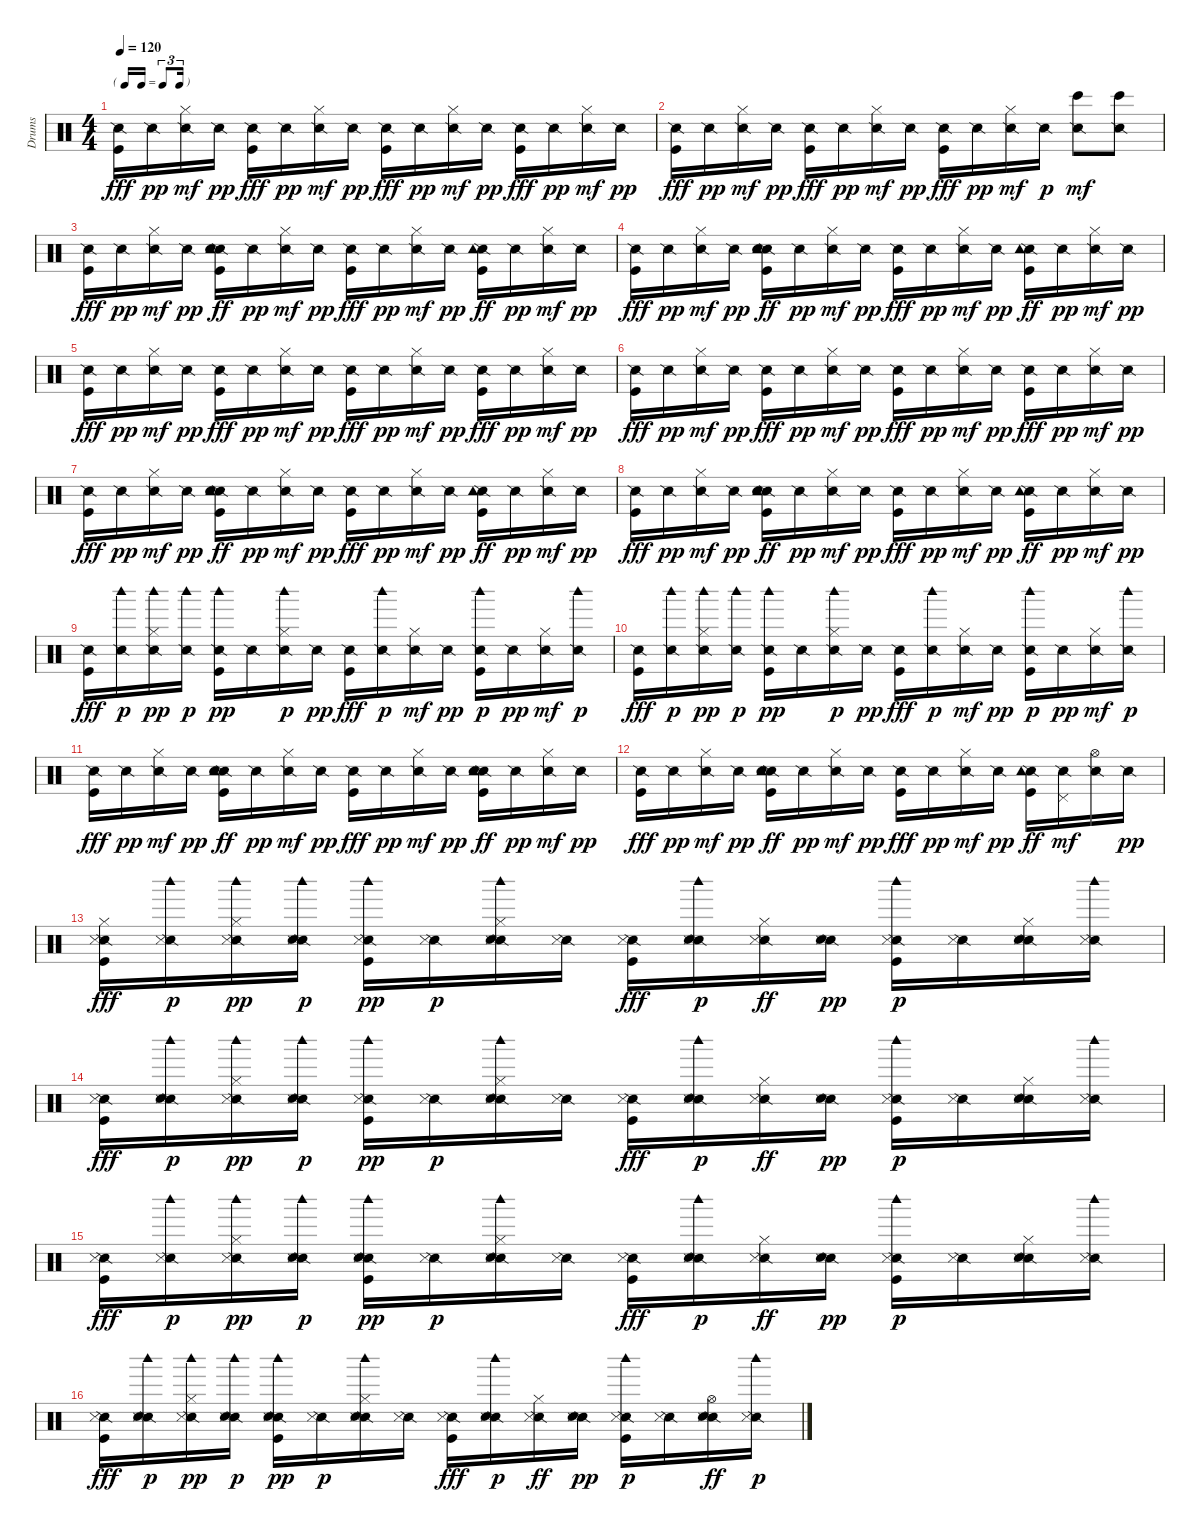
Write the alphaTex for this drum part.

\track ("Drums" "Drums") {instrument percussion}
\staff {score}
\articulation defaults
\ts (4 4)
\tf triplet16th
\tempo 120
\clef neutral
\ks c
("Snare (side stick) 2" "Kick (hit)").16{dy fff} "Snare (side stick) 2".16{dy pp} ("Snare (side stick) 2" "Hi-Hat (closed)").16{dy mf} "Snare (side stick) 2".16{dy pp} ("Snare (side stick) 2" "Kick (hit)").16{dy fff} "Snare (side stick) 2".16{dy pp} ("Snare (side stick) 2" "Hi-Hat (closed)").16{dy mf} "Snare (side stick) 2".16{dy pp} ("Snare (side stick) 2" "Kick (hit)").16{dy fff} "Snare (side stick) 2".16{dy pp} ("Snare (side stick) 2" "Hi-Hat (closed)").16{dy mf} "Snare (side stick) 2".16{dy pp} ("Snare (side stick) 2" "Kick (hit)").16{dy fff} "Snare (side stick) 2".16{dy pp} ("Snare (side stick) 2" "Hi-Hat (closed)").16{dy mf} "Snare (side stick) 2".16{dy pp} |
("Snare (side stick) 2" "Kick (hit)").16{dy fff} "Snare (side stick) 2".16{dy pp} ("Snare (side stick) 2" "Hi-Hat (closed)").16{dy mf} "Snare (side stick) 2".16{dy pp} ("Snare (side stick) 2" "Kick (hit)").16{dy fff} "Snare (side stick) 2".16{dy pp} ("Snare (side stick) 2" "Hi-Hat (closed)").16{dy mf} "Snare (side stick) 2".16{dy pp} ("Snare (side stick) 2" "Kick (hit)").16{dy fff} "Snare (side stick) 2".16{dy pp} ("Snare (side stick) 2" "Hi-Hat (closed)").16{dy mf} "Snare (side stick) 2".16{dy p} ("Bongo High (hit)" "Snare (side stick) 2").8{dy mf} ("Bongo High (hit)" "Snare (side stick) 2").8 |
("Snare (side stick) 2" "Kick (hit)").16{dy fff} "Snare (side stick) 2".16{dy pp} ("Snare (side stick) 2" "Hi-Hat (closed)").16{dy mf} "Snare (side stick) 2".16{dy pp} ("Snare (side stick) 2" "Kick (hit)" "Hand Clap (hit)" "Tambourine (hit)").16{dy ff} "Snare (side stick) 2".16{dy pp} ("Snare (side stick) 2" "Hi-Hat (closed)").16{dy mf} "Snare (side stick) 2".16{dy pp} ("Snare (side stick) 2" "Kick (hit)").16{dy fff} "Snare (side stick) 2".16{dy pp} ("Snare (side stick) 2" "Hi-Hat (closed)").16{dy mf} "Snare (side stick) 2".16{dy pp} ("Snare (side stick) 2" "Kick (hit)" "Tambourine (hit)").16{dy ff} "Snare (side stick) 2".16{dy pp} ("Snare (side stick) 2" "Hi-Hat (closed)").16{dy mf} "Snare (side stick) 2".16{dy pp} |
("Snare (side stick) 2" "Kick (hit)").16{dy fff} "Snare (side stick) 2".16{dy pp} ("Snare (side stick) 2" "Hi-Hat (closed)").16{dy mf} "Snare (side stick) 2".16{dy pp} ("Snare (side stick) 2" "Kick (hit)" "Hand Clap (hit)" "Tambourine (hit)").16{dy ff} "Snare (side stick) 2".16{dy pp} ("Snare (side stick) 2" "Hi-Hat (closed)").16{dy mf} "Snare (side stick) 2".16{dy pp} ("Snare (side stick) 2" "Kick (hit)").16{dy fff} "Snare (side stick) 2".16{dy pp} ("Snare (side stick) 2" "Hi-Hat (closed)").16{dy mf} "Snare (side stick) 2".16{dy pp} ("Snare (side stick) 2" "Kick (hit)" "Tambourine (hit)").16{dy ff} "Snare (side stick) 2".16{dy pp} ("Snare (side stick) 2" "Hi-Hat (closed)").16{dy mf} "Snare (side stick) 2".16{dy pp} |
("Snare (side stick) 2" "Kick (hit)").16{dy fff} "Snare (side stick) 2".16{dy pp} ("Snare (side stick) 2" "Hi-Hat (closed)").16{dy mf} "Snare (side stick) 2".16{dy pp} ("Snare (side stick) 2" "Kick (hit)").16{dy fff} "Snare (side stick) 2".16{dy pp} ("Snare (side stick) 2" "Hi-Hat (closed)").16{dy mf} "Snare (side stick) 2".16{dy pp} ("Snare (side stick) 2" "Kick (hit)").16{dy fff} "Snare (side stick) 2".16{dy pp} ("Snare (side stick) 2" "Hi-Hat (closed)").16{dy mf} "Snare (side stick) 2".16{dy pp} ("Snare (side stick) 2" "Kick (hit)").16{dy fff} "Snare (side stick) 2".16{dy pp} ("Snare (side stick) 2" "Hi-Hat (closed)").16{dy mf} "Snare (side stick) 2".16{dy pp} |
("Snare (side stick) 2" "Kick (hit)").16{dy fff} "Snare (side stick) 2".16{dy pp} ("Snare (side stick) 2" "Hi-Hat (closed)").16{dy mf} "Snare (side stick) 2".16{dy pp} ("Snare (side stick) 2" "Kick (hit)").16{dy fff} "Snare (side stick) 2".16{dy pp} ("Snare (side stick) 2" "Hi-Hat (closed)").16{dy mf} "Snare (side stick) 2".16{dy pp} ("Snare (side stick) 2" "Kick (hit)").16{dy fff} "Snare (side stick) 2".16{dy pp} ("Snare (side stick) 2" "Hi-Hat (closed)").16{dy mf} "Snare (side stick) 2".16{dy pp} ("Snare (side stick) 2" "Kick (hit)").16{dy fff} "Snare (side stick) 2".16{dy pp} ("Snare (side stick) 2" "Hi-Hat (closed)").16{dy mf} "Snare (side stick) 2".16{dy pp} |
("Snare (side stick) 2" "Kick (hit)").16{dy fff} "Snare (side stick) 2".16{dy pp} ("Snare (side stick) 2" "Hi-Hat (closed)").16{dy mf} "Snare (side stick) 2".16{dy pp} ("Snare (side stick) 2" "Kick (hit)" "Hand Clap (hit)" "Tambourine (hit)").16{dy ff} "Snare (side stick) 2".16{dy pp} ("Snare (side stick) 2" "Hi-Hat (closed)").16{dy mf} "Snare (side stick) 2".16{dy pp} ("Snare (side stick) 2" "Kick (hit)").16{dy fff} "Snare (side stick) 2".16{dy pp} ("Snare (side stick) 2" "Hi-Hat (closed)").16{dy mf} "Snare (side stick) 2".16{dy pp} ("Snare (side stick) 2" "Kick (hit)" "Tambourine (hit)").16{dy ff} "Snare (side stick) 2".16{dy pp} ("Snare (side stick) 2" "Hi-Hat (closed)").16{dy mf} "Snare (side stick) 2".16{dy pp} |
("Snare (side stick) 2" "Kick (hit)").16{dy fff} "Snare (side stick) 2".16{dy pp} ("Snare (side stick) 2" "Hi-Hat (closed)").16{dy mf} "Snare (side stick) 2".16{dy pp} ("Snare (side stick) 2" "Kick (hit)" "Hand Clap (hit)" "Tambourine (hit)").16{dy ff} "Snare (side stick) 2".16{dy pp} ("Snare (side stick) 2" "Hi-Hat (closed)").16{dy mf} "Snare (side stick) 2".16{dy pp} ("Snare (side stick) 2" "Kick (hit)").16{dy fff} "Snare (side stick) 2".16{dy pp} ("Snare (side stick) 2" "Hi-Hat (closed)").16{dy mf} "Snare (side stick) 2".16{dy pp} ("Snare (side stick) 2" "Kick (hit)" "Tambourine (hit)").16{dy ff} "Snare (side stick) 2".16{dy pp} ("Snare (side stick) 2" "Hi-Hat (closed)").16{dy mf} "Snare (side stick) 2".16{dy pp} |
("Snare (side stick) 2" "Kick (hit)").16{dy fff} ("Snare (side stick) 2" "Woodblock high (hit)").16{dy p} ("Snare (side stick) 2" "Hi-Hat (closed)" "Woodblock high (hit)").16{dy pp} ("Snare (side stick) 2" "Woodblock high (hit)").16{dy p} ("Snare (side stick) 2" "Kick (hit)" "Woodblock high (hit)").16{dy pp} "Snare (side stick) 2".16 ("Snare (side stick) 2" "Hi-Hat (closed)" "Woodblock high (hit)").16{dy p} "Snare (side stick) 2".16{dy pp} ("Snare (side stick) 2" "Kick (hit)").16{dy fff} ("Snare (side stick) 2" "Woodblock high (hit)").16{dy p} ("Snare (side stick) 2" "Hi-Hat (closed)").16{dy mf} "Snare (side stick) 2".16{dy pp} ("Snare (side stick) 2" "Kick (hit)" "Woodblock high (hit)").16{dy p} "Snare (side stick) 2".16{dy pp} ("Snare (side stick) 2" "Hi-Hat (closed)").16{dy mf} ("Snare (side stick) 2" "Woodblock high (hit)").16{dy p} |
("Snare (side stick) 2" "Kick (hit)").16{dy fff} ("Snare (side stick) 2" "Woodblock high (hit)").16{dy p} ("Snare (side stick) 2" "Hi-Hat (closed)" "Woodblock high (hit)").16{dy pp} ("Snare (side stick) 2" "Woodblock high (hit)").16{dy p} ("Snare (side stick) 2" "Kick (hit)" "Woodblock high (hit)").16{dy pp} "Snare (side stick) 2".16 ("Snare (side stick) 2" "Hi-Hat (closed)" "Woodblock high (hit)").16{dy p} "Snare (side stick) 2".16{dy pp} ("Snare (side stick) 2" "Kick (hit)").16{dy fff} ("Snare (side stick) 2" "Woodblock high (hit)").16{dy p} ("Snare (side stick) 2" "Hi-Hat (closed)").16{dy mf} "Snare (side stick) 2".16{dy pp} ("Snare (side stick) 2" "Kick (hit)" "Woodblock high (hit)").16{dy p} "Snare (side stick) 2".16{dy pp} ("Snare (side stick) 2" "Hi-Hat (closed)").16{dy mf} ("Snare (side stick) 2" "Woodblock high (hit)").16{dy p} |
("Snare (side stick) 2" "Kick (hit)").16{dy fff} "Snare (side stick) 2".16{dy pp} ("Snare (side stick) 2" "Hi-Hat (closed)").16{dy mf} "Snare (side stick) 2".16{dy pp} ("Snare (side stick) 2" "Kick (hit)" "Hand Clap (hit)" "Tambourine (hit)").16{dy ff} "Snare (side stick) 2".16{dy pp} ("Snare (side stick) 2" "Hi-Hat (closed)").16{dy mf} "Snare (side stick) 2".16{dy pp} ("Snare (side stick) 2" "Kick (hit)").16{dy fff} "Snare (side stick) 2".16{dy pp} ("Snare (side stick) 2" "Hi-Hat (closed)").16{dy mf} "Snare (side stick) 2".16{dy pp} ("Snare (side stick) 2" "Kick (hit)" "Electric Snare (hit)" "Tambourine (hit)").16{dy ff} "Snare (side stick) 2".16{dy pp} ("Snare (side stick) 2" "Hi-Hat (closed)").16{dy mf} "Snare (side stick) 2".16{dy pp} |
("Snare (side stick) 2" "Kick (hit)").16{dy fff} "Snare (side stick) 2".16{dy pp} ("Snare (side stick) 2" "Hi-Hat (closed)").16{dy mf} "Snare (side stick) 2".16{dy pp} ("Snare (side stick) 2" "Kick (hit)" "Hand Clap (hit)" "Tambourine (hit)").16{dy ff} "Snare (side stick) 2".16{dy pp} ("Snare (side stick) 2" "Hi-Hat (closed)").16{dy mf} "Snare (side stick) 2".16{dy pp} ("Snare (side stick) 2" "Kick (hit)").16{dy fff} "Snare (side stick) 2".16{dy pp} ("Snare (side stick) 2" "Hi-Hat (closed)").16{dy mf} "Snare (side stick) 2".16{dy pp} ("Snare (side stick) 2" "Kick (hit)" "Tambourine (hit)").16{dy ff} ("Snare (side stick) 2" "Pedal Hi-Hat (hit)").16{dy mf} ("Snare (side stick) 2" "Hi-Hat (open)").16 "Snare (side stick) 2".16{dy pp} |
("Snare (side stick) 2" "Metronome (hit)" "Kick (hit)" "Hi-Hat (closed)").16{dy fff} ("Snare (side stick) 2" "Metronome (hit)" "Woodblock high (hit)").16{dy p} ("Snare (side stick) 2" "Metronome (hit)" "Hi-Hat (closed)" "Woodblock high (hit)").16{dy pp} ("Snare (side stick) 2" "Metronome (hit)" "Hand Clap (hit)" "Woodblock high (hit)").16{dy p} ("Snare (side stick) 2" "Metronome (hit)" "Kick (hit)" "Woodblock high (hit)").16{dy pp} ("Snare (side stick) 2" "Metronome (hit)").16{dy p} ("Snare (side stick) 2" "Metronome (hit)" "Hand Clap (hit)" "Hi-Hat (closed)" "Woodblock high (hit)").16 ("Snare (side stick) 2" "Metronome (hit)").16 ("Snare (side stick) 2" "Metronome (hit)" "Kick (hit)").16{dy fff} ("Snare (side stick) 2" "Metronome (hit)" "Hand Clap (hit)" "Woodblock high (hit)").16{dy p} ("Snare (side stick) 2" "Metronome (hit)" "Hi-Hat (closed)").16{dy ff} ("Snare (side stick) 2" "Metronome (hit)" "Hand Clap (hit)").16{dy pp} ("Snare (side stick) 2" "Metronome (hit)" "Kick (hit)" "Woodblock high (hit)").16{dy p} ("Snare (side stick) 2" "Metronome (hit)").16 ("Snare (side stick) 2" "Metronome (hit)" "Hand Clap (hit)" "Hi-Hat (closed)").16 ("Snare (side stick) 2" "Metronome (hit)" "Woodblock high (hit)").16 |
("Snare (side stick) 2" "Metronome (hit)" "Kick (hit)").16{dy fff} ("Snare (side stick) 2" "Metronome (hit)" "Hand Clap (hit)" "Woodblock high (hit)").16{dy p} ("Snare (side stick) 2" "Metronome (hit)" "Hi-Hat (closed)" "Woodblock high (hit)").16{dy pp} ("Snare (side stick) 2" "Metronome (hit)" "Hand Clap (hit)" "Woodblock high (hit)").16{dy p} ("Snare (side stick) 2" "Metronome (hit)" "Kick (hit)" "Woodblock high (hit)").16{dy pp} ("Snare (side stick) 2" "Metronome (hit)").16{dy p} ("Snare (side stick) 2" "Metronome (hit)" "Hand Clap (hit)" "Hi-Hat (closed)" "Woodblock high (hit)").16 ("Snare (side stick) 2" "Metronome (hit)").16 ("Snare (side stick) 2" "Metronome (hit)" "Kick (hit)").16{dy fff} ("Snare (side stick) 2" "Metronome (hit)" "Hand Clap (hit)" "Woodblock high (hit)").16{dy p} ("Snare (side stick) 2" "Metronome (hit)" "Hi-Hat (closed)").16{dy ff} ("Snare (side stick) 2" "Metronome (hit)" "Hand Clap (hit)").16{dy pp} ("Snare (side stick) 2" "Metronome (hit)" "Kick (hit)" "Woodblock high (hit)").16{dy p} ("Snare (side stick) 2" "Metronome (hit)").16 ("Snare (side stick) 2" "Metronome (hit)" "Hand Clap (hit)" "Hi-Hat (closed)").16 ("Snare (side stick) 2" "Metronome (hit)" "Woodblock high (hit)").16 |
("Snare (side stick) 2" "Metronome (hit)" "Kick (hit)").16{dy fff} ("Snare (side stick) 2" "Metronome (hit)" "Woodblock high (hit)").16{dy p} ("Snare (side stick) 2" "Metronome (hit)" "Hi-Hat (closed)" "Woodblock high (hit)").16{dy pp} ("Snare (side stick) 2" "Metronome (hit)" "Hand Clap (hit)" "Woodblock high (hit)").16{dy p} ("Snare (side stick) 2" "Metronome (hit)" "Kick (hit)" "Hand Clap (hit)" "Woodblock high (hit)").16{dy pp} ("Snare (side stick) 2" "Metronome (hit)").16{dy p} ("Snare (side stick) 2" "Metronome (hit)" "Hand Clap (hit)" "Hi-Hat (closed)" "Woodblock high (hit)").16 ("Snare (side stick) 2" "Metronome (hit)").16 ("Snare (side stick) 2" "Metronome (hit)" "Kick (hit)").16{dy fff} ("Snare (side stick) 2" "Metronome (hit)" "Hand Clap (hit)" "Woodblock high (hit)").16{dy p} ("Snare (side stick) 2" "Metronome (hit)" "Hi-Hat (closed)").16{dy ff} ("Snare (side stick) 2" "Metronome (hit)" "Hand Clap (hit)").16{dy pp} ("Snare (side stick) 2" "Metronome (hit)" "Kick (hit)" "Woodblock high (hit)").16{dy p} ("Snare (side stick) 2" "Metronome (hit)").16 ("Snare (side stick) 2" "Metronome (hit)" "Hand Clap (hit)" "Hi-Hat (closed)").16 ("Snare (side stick) 2" "Metronome (hit)" "Woodblock high (hit)").16 |
("Snare (side stick) 2" "Metronome (hit)" "Kick (hit)").16{dy fff} ("Snare (side stick) 2" "Metronome (hit)" "Hand Clap (hit)" "Woodblock high (hit)").16{dy p} ("Snare (side stick) 2" "Metronome (hit)" "Hi-Hat (closed)" "Woodblock high (hit)").16{dy pp} ("Snare (side stick) 2" "Metronome (hit)" "Hand Clap (hit)" "Woodblock high (hit)").16{dy p} ("Snare (side stick) 2" "Metronome (hit)" "Kick (hit)" "Electric Snare (hit)" "Woodblock high (hit)").16{dy pp} ("Snare (side stick) 2" "Metronome (hit)").16{dy p} ("Snare (side stick) 2" "Metronome (hit)" "Hand Clap (hit)" "Hi-Hat (closed)" "Woodblock high (hit)").16 ("Snare (side stick) 2" "Metronome (hit)").16 ("Snare (side stick) 2" "Metronome (hit)" "Kick (hit)").16{dy fff} ("Snare (side stick) 2" "Metronome (hit)" "Hand Clap (hit)" "Woodblock high (hit)").16{dy p} ("Snare (side stick) 2" "Metronome (hit)" "Hi-Hat (closed)").16{dy ff} ("Snare (side stick) 2" "Metronome (hit)" "Hand Clap (hit)").16{dy pp} ("Snare (side stick) 2" "Metronome (hit)" "Kick (hit)" "Woodblock high (hit)").16{dy p} ("Snare (side stick) 2" "Metronome (hit)").16 ("Snare (side stick) 2" "Metronome (hit)" "Hand Clap (hit)" "Hi-Hat (open)").16{dy ff} ("Snare (side stick) 2" "Metronome (hit)" "Woodblock high (hit)").16{dy p}
